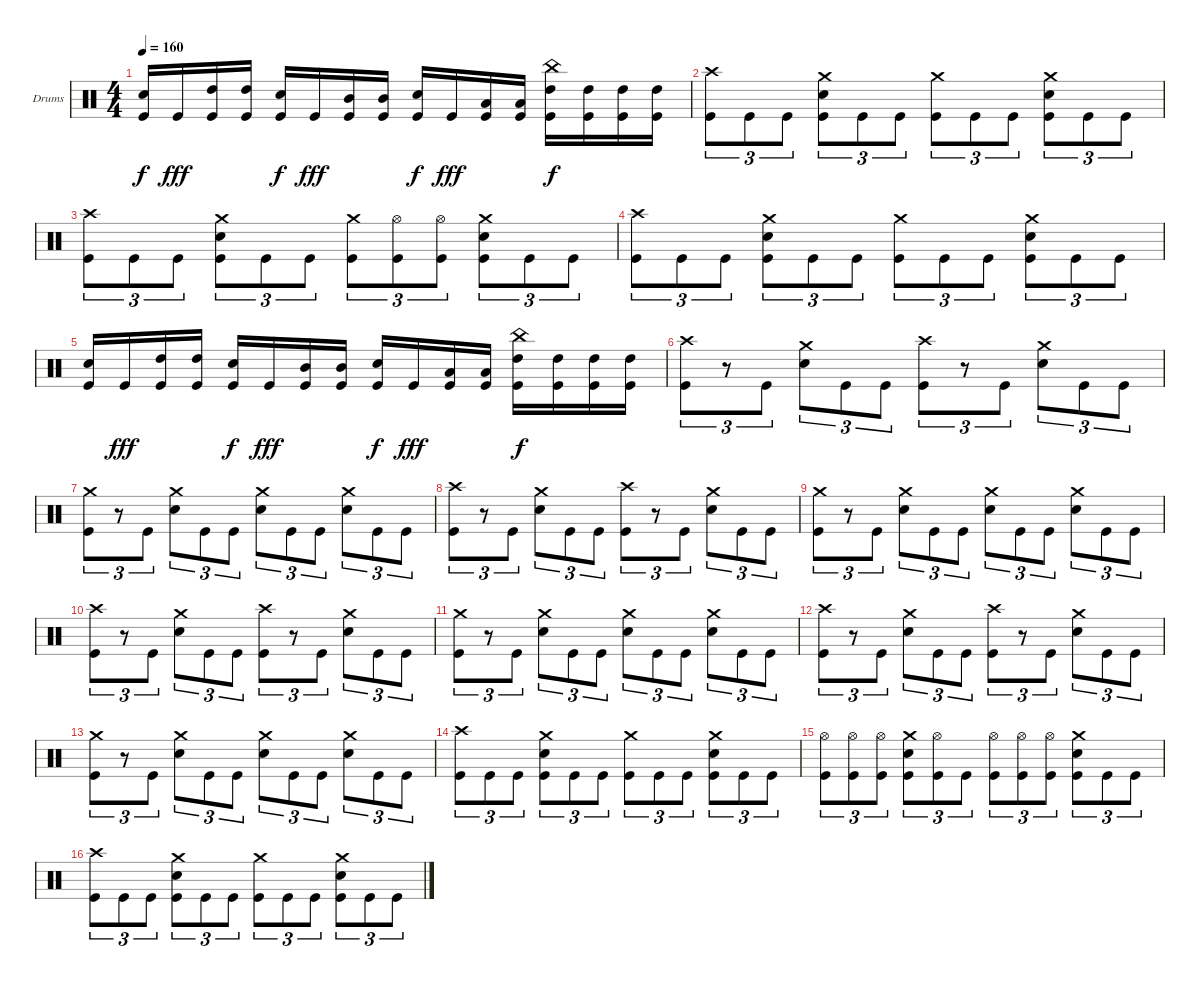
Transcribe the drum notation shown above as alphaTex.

\defaultSystemsLayout 4
\bracketExtendMode groupsimilarinstruments
\firstSystemTrackNameOrientation horizontal
\otherSystemsTrackNameOrientation horizontal
\track ("Drumkit" "Drums") {instrument percussion}
\staff {score}
\articulation defaults
\ts (4 4)
\tempo 160
\clef neutral
\ks c
("Snare (hit) 2" "Kick (hit)").16{dy f} "Kick (hit)".16{dy fff} ("High Tom (hit)" "Kick (hit)").16 ("High Tom (hit)" "Kick (hit)").16 ("Snare (hit) 2" "Kick (hit)").16{dy f} "Kick (hit)".16{dy fff} ("Mid Tom (hit)" "Kick (hit)").16 ("Mid Tom (hit)" "Kick (hit)").16 ("Snare (hit) 2" "Kick (hit)").16{dy f} "Kick (hit)".16{dy fff} ("Low Tom (hit)" "Kick (hit)").16 ("Low Tom (hit)" "Kick (hit)").16 ("High Tom (hit)" "Kick (hit)" "China (hit)").16{dy f} ("High Tom (hit)" "Kick (hit)").16 ("High Tom (hit)" "Kick (hit)").16 ("High Tom (hit)" "Kick (hit)").16 |
("Crash high (hit)" "Kick (hit)").8{tu (3 2)} "Kick (hit)".8{tu (3 2)} "Kick (hit)".8{tu (3 2)} ("Crash medium (hit)" "Snare (hit) 2" "Kick (hit)").8{tu (3 2)} "Kick (hit)".8{tu (3 2)} "Kick (hit)".8{tu (3 2)} ("Crash medium (hit)" "Kick (hit)").8{tu (3 2)} "Kick (hit)".8{tu (3 2)} "Kick (hit)".8{tu (3 2)} ("Crash medium (hit)" "Snare (hit) 2" "Kick (hit)").8{tu (3 2)} "Kick (hit)".8{tu (3 2)} "Kick (hit)".8{tu (3 2)} |
("Crash high (hit)" "Kick (hit)").8{tu (3 2)} "Kick (hit)".8{tu (3 2)} "Kick (hit)".8{tu (3 2)} ("Crash medium (hit)" "Snare (hit) 2" "Kick (hit)").8{tu (3 2)} "Kick (hit)".8{tu (3 2)} "Kick (hit)".8{tu (3 2)} ("Crash medium (hit)" "Kick (hit)").8{tu (3 2)} ("Kick (hit)" "Hi-Hat (open)").8{tu (3 2)} ("Kick (hit)" "Hi-Hat (open)").8{tu (3 2)} ("Crash medium (hit)" "Snare (hit) 2" "Kick (hit)").8{tu (3 2)} "Kick (hit)".8{tu (3 2)} "Kick (hit)".8{tu (3 2)} |
("Crash high (hit)" "Kick (hit)").8{tu (3 2)} "Kick (hit)".8{tu (3 2)} "Kick (hit)".8{tu (3 2)} ("Crash medium (hit)" "Snare (hit) 2" "Kick (hit)").8{tu (3 2)} "Kick (hit)".8{tu (3 2)} "Kick (hit)".8{tu (3 2)} ("Crash medium (hit)" "Kick (hit)").8{tu (3 2)} "Kick (hit)".8{tu (3 2)} "Kick (hit)".8{tu (3 2)} ("Crash medium (hit)" "Snare (hit) 2" "Kick (hit)").8{tu (3 2)} "Kick (hit)".8{tu (3 2)} "Kick (hit)".8{tu (3 2)} |
("Snare (hit) 2" "Kick (hit)").16 "Kick (hit)".16{dy fff} ("High Tom (hit)" "Kick (hit)").16 ("High Tom (hit)" "Kick (hit)").16 ("Snare (hit) 2" "Kick (hit)").16{dy f} "Kick (hit)".16{dy fff} ("Mid Tom (hit)" "Kick (hit)").16 ("Mid Tom (hit)" "Kick (hit)").16 ("Snare (hit) 2" "Kick (hit)").16{dy f} "Kick (hit)".16{dy fff} ("Low Tom (hit)" "Kick (hit)").16 ("Low Tom (hit)" "Kick (hit)").16 ("High Tom (hit)" "Kick (hit)" "China (hit)").16{dy f} ("High Tom (hit)" "Kick (hit)").16 ("High Tom (hit)" "Kick (hit)").16 ("High Tom (hit)" "Kick (hit)").16 |
("Crash high (hit)" "Kick (hit)").8{tu (3 2)} r.8{tu (3 2)} "Kick (hit)".8{tu (3 2)} ("Crash medium (hit)" "Snare (hit) 2").8{tu (3 2)} "Kick (hit)".8{tu (3 2)} "Kick (hit)".8{tu (3 2)} ("Crash high (hit)" "Kick (hit)").8{tu (3 2)} r.8{tu (3 2)} "Kick (hit)".8{tu (3 2)} ("Crash medium (hit)" "Snare (hit) 2").8{tu (3 2)} "Kick (hit)".8{tu (3 2)} "Kick (hit)".8{tu (3 2)} |
("Crash medium (hit)" "Kick (hit)").8{tu (3 2)} r.8{tu (3 2)} "Kick (hit)".8{tu (3 2)} ("Crash medium (hit)" "Snare (hit) 2").8{tu (3 2)} "Kick (hit)".8{tu (3 2)} "Kick (hit)".8{tu (3 2)} ("Crash medium (hit)" "Snare (hit) 2").8{tu (3 2)} "Kick (hit)".8{tu (3 2)} "Kick (hit)".8{tu (3 2)} ("Crash medium (hit)" "Snare (hit) 2").8{tu (3 2)} "Kick (hit)".8{tu (3 2)} "Kick (hit)".8{tu (3 2)} |
("Crash high (hit)" "Kick (hit)").8{tu (3 2)} r.8{tu (3 2)} "Kick (hit)".8{tu (3 2)} ("Crash medium (hit)" "Snare (hit) 2").8{tu (3 2)} "Kick (hit)".8{tu (3 2)} "Kick (hit)".8{tu (3 2)} ("Crash high (hit)" "Kick (hit)").8{tu (3 2)} r.8{tu (3 2)} "Kick (hit)".8{tu (3 2)} ("Crash medium (hit)" "Snare (hit) 2").8{tu (3 2)} "Kick (hit)".8{tu (3 2)} "Kick (hit)".8{tu (3 2)} |
("Crash medium (hit)" "Kick (hit)").8{tu (3 2)} r.8{tu (3 2)} "Kick (hit)".8{tu (3 2)} ("Crash medium (hit)" "Snare (hit) 2").8{tu (3 2)} "Kick (hit)".8{tu (3 2)} "Kick (hit)".8{tu (3 2)} ("Crash medium (hit)" "Snare (hit) 2").8{tu (3 2)} "Kick (hit)".8{tu (3 2)} "Kick (hit)".8{tu (3 2)} ("Crash medium (hit)" "Snare (hit) 2").8{tu (3 2)} "Kick (hit)".8{tu (3 2)} "Kick (hit)".8{tu (3 2)} |
("Crash high (hit)" "Kick (hit)").8{tu (3 2)} r.8{tu (3 2)} "Kick (hit)".8{tu (3 2)} ("Crash medium (hit)" "Snare (hit) 2").8{tu (3 2)} "Kick (hit)".8{tu (3 2)} "Kick (hit)".8{tu (3 2)} ("Crash high (hit)" "Kick (hit)").8{tu (3 2)} r.8{tu (3 2)} "Kick (hit)".8{tu (3 2)} ("Crash medium (hit)" "Snare (hit) 2").8{tu (3 2)} "Kick (hit)".8{tu (3 2)} "Kick (hit)".8{tu (3 2)} |
("Crash medium (hit)" "Kick (hit)").8{tu (3 2)} r.8{tu (3 2)} "Kick (hit)".8{tu (3 2)} ("Crash medium (hit)" "Snare (hit) 2").8{tu (3 2)} "Kick (hit)".8{tu (3 2)} "Kick (hit)".8{tu (3 2)} ("Crash medium (hit)" "Snare (hit) 2").8{tu (3 2)} "Kick (hit)".8{tu (3 2)} "Kick (hit)".8{tu (3 2)} ("Crash medium (hit)" "Snare (hit) 2").8{tu (3 2)} "Kick (hit)".8{tu (3 2)} "Kick (hit)".8{tu (3 2)} |
("Crash high (hit)" "Kick (hit)").8{tu (3 2)} r.8{tu (3 2)} "Kick (hit)".8{tu (3 2)} ("Crash medium (hit)" "Snare (hit) 2").8{tu (3 2)} "Kick (hit)".8{tu (3 2)} "Kick (hit)".8{tu (3 2)} ("Crash high (hit)" "Kick (hit)").8{tu (3 2)} r.8{tu (3 2)} "Kick (hit)".8{tu (3 2)} ("Crash medium (hit)" "Snare (hit) 2").8{tu (3 2)} "Kick (hit)".8{tu (3 2)} "Kick (hit)".8{tu (3 2)} |
("Crash medium (hit)" "Kick (hit)").8{tu (3 2)} r.8{tu (3 2)} "Kick (hit)".8{tu (3 2)} ("Crash medium (hit)" "Snare (hit) 2").8{tu (3 2)} "Kick (hit)".8{tu (3 2)} "Kick (hit)".8{tu (3 2)} ("Crash medium (hit)" "Snare (hit) 2").8{tu (3 2)} "Kick (hit)".8{tu (3 2)} "Kick (hit)".8{tu (3 2)} ("Crash medium (hit)" "Snare (hit) 2").8{tu (3 2)} "Kick (hit)".8{tu (3 2)} "Kick (hit)".8{tu (3 2)} |
("Crash high (hit)" "Kick (hit)").8{tu (3 2)} "Kick (hit)".8{tu (3 2)} "Kick (hit)".8{tu (3 2)} ("Crash medium (hit)" "Snare (hit) 2" "Kick (hit)").8{tu (3 2)} "Kick (hit)".8{tu (3 2)} "Kick (hit)".8{tu (3 2)} ("Crash medium (hit)" "Kick (hit)").8{tu (3 2)} "Kick (hit)".8{tu (3 2)} "Kick (hit)".8{tu (3 2)} ("Crash medium (hit)" "Snare (hit) 2" "Kick (hit)").8{tu (3 2)} "Kick (hit)".8{tu (3 2)} "Kick (hit)".8{tu (3 2)} |
("Kick (hit)" "Hi-Hat (open)").8{tu (3 2)} ("Kick (hit)" "Hi-Hat (open)").8{tu (3 2)} ("Kick (hit)" "Hi-Hat (open)").8{tu (3 2)} ("Crash medium (hit)" "Snare (hit) 2" "Kick (hit)").8{tu (3 2)} ("Kick (hit)" "Hi-Hat (open)").8{tu (3 2)} "Kick (hit)".8{tu (3 2)} ("Kick (hit)" "Hi-Hat (open)").8{tu (3 2)} ("Kick (hit)" "Hi-Hat (open)").8{tu (3 2)} ("Kick (hit)" "Hi-Hat (open)").8{tu (3 2)} ("Crash medium (hit)" "Snare (hit) 2" "Kick (hit)").8{tu (3 2)} "Kick (hit)".8{tu (3 2)} "Kick (hit)".8{tu (3 2)} |
("Crash high (hit)" "Kick (hit)").8{tu (3 2)} "Kick (hit)".8{tu (3 2)} "Kick (hit)".8{tu (3 2)} ("Crash medium (hit)" "Snare (hit) 2" "Kick (hit)").8{tu (3 2)} "Kick (hit)".8{tu (3 2)} "Kick (hit)".8{tu (3 2)} ("Crash medium (hit)" "Kick (hit)").8{tu (3 2)} "Kick (hit)".8{tu (3 2)} "Kick (hit)".8{tu (3 2)} ("Crash medium (hit)" "Snare (hit) 2" "Kick (hit)").8{tu (3 2)} "Kick (hit)".8{tu (3 2)} "Kick (hit)".8{tu (3 2)}
